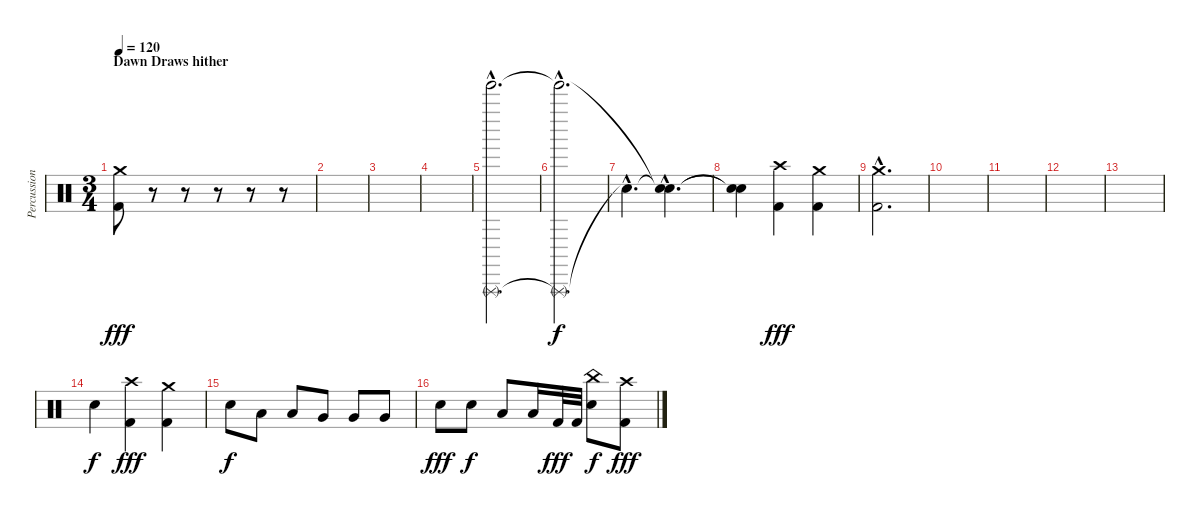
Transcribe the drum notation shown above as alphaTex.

\track ("Percussion" "Percussion") {instrument percussion}
\staff {score}
\articulation defaults
\ts (3 4)
\section ("" "Dawn Draws hither")
\tempo 120
\clef neutral
\ks c
("Crash medium (hit)" "Kick (hit) 2").8{dy fff} r.8 r.8 r.8 r.8 r.8 |
|
|
|
("Triangle (rnute)"{hac} "Tinkle Bell (hit)"{hac}).2{d volume 16} |
("Triangle (rnute)"{hac t} "Tinkle Bell (hit)"{hac t}).2{d dy f} |
"Snare (hit)"{hac t}.4{d} ("Snare (hit)"{hac t} "Snare (hit)"{hac t}).4{d} |
("Snare (hit)"{t} "Snare (hit)"{t}).4{volume 13} ("Crash high (hit)" "Kick (hit) 2").4{dy fff} ("Crash medium (hit)" "Kick (hit) 2").4 |
("Crash medium (hit)"{hac} "Kick (hit) 2"{hac}).2{d} |
|
|
|
|
"Snare (hit)".4{dy f} ("Crash high (hit)" "Kick (hit) 2").4{dy fff} ("Crash medium (hit)" "Kick (hit) 2").4 |
"Electric Snare (hit)".8{dy f} "Low Tom (hit)".8 "Low Tom (hit)".8 "Very Low Tom (hit)".8 "Very Low Tom (hit)".8 "Very Low Tom (hit)".8 |
"Electric Snare (hit)".8{dy fff} "Electric Snare (hit)".8{dy f} "Low Tom (hit)".8 "Low Tom (hit)".16 "Kick (hit) 2".32{dy fff} "Kick (hit) 2".32 ("China (hit)" "Electric Snare (hit)").8{dy f} ("Crash high (hit)" "Kick (hit) 2").8{dy fff}
